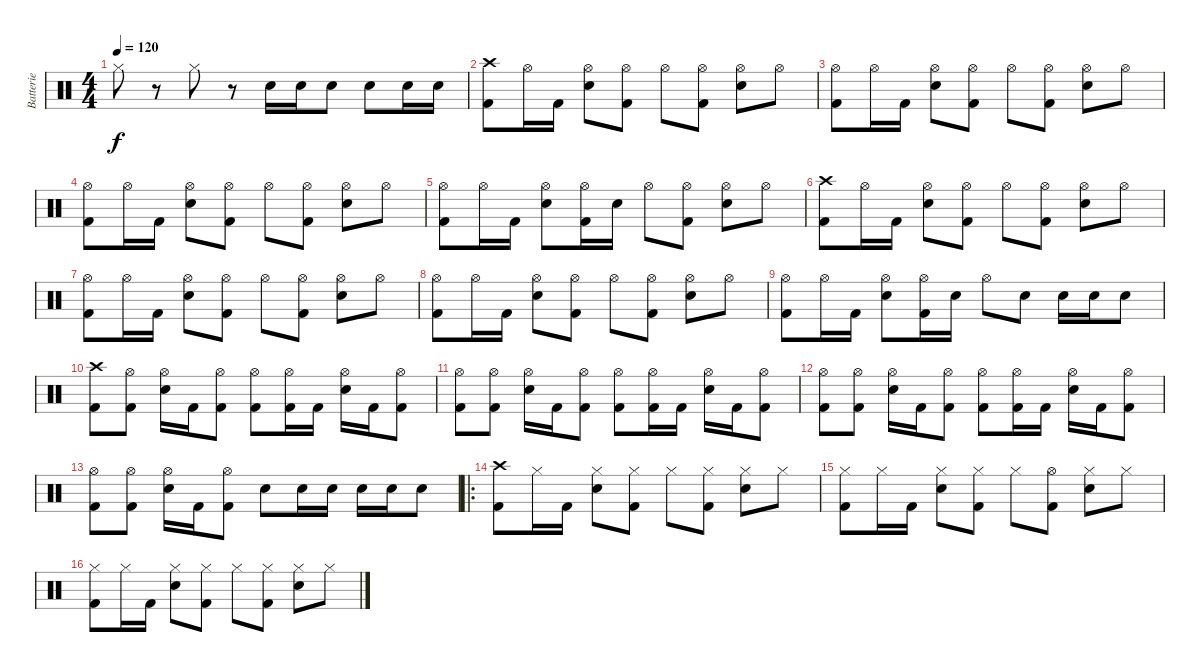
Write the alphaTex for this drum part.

\track ("Batterie" "Batterie") {instrument percussion}
\staff {score}
\articulation defaults
\ts (4 4)
\tempo 120
\clef neutral
\ks c "Hi-Hat (closed)".8{dy f}
r.8 "Hi-Hat (closed)".8 r.8 "Snare (hit) 2".16 "Snare (hit) 2".16 "Snare (hit) 2".8 "Snare (hit) 2".8 "Snare (hit) 2".16 "Snare (hit) 2".16 |
("Crash high (hit)" "Kick (hit) 2").8 "Hi-Hat (open)".16 "Kick (hit) 2".16 ("Hi-Hat (open)" "Snare (hit) 2").8 ("Hi-Hat (open)" "Kick (hit) 2").8 "Hi-Hat (open)".8 ("Hi-Hat (open)" "Kick (hit) 2").8 ("Hi-Hat (open)" "Snare (hit) 2").8 "Hi-Hat (open)".8 |
("Hi-Hat (open)" "Kick (hit) 2").8 "Hi-Hat (open)".16 "Kick (hit) 2".16 ("Hi-Hat (open)" "Snare (hit) 2").8 ("Hi-Hat (open)" "Kick (hit) 2").8 "Hi-Hat (open)".8 ("Hi-Hat (open)" "Kick (hit) 2").8 ("Hi-Hat (open)" "Snare (hit) 2").8 "Hi-Hat (open)".8 |
("Hi-Hat (open)" "Kick (hit) 2").8 "Hi-Hat (open)".16 "Kick (hit) 2".16 ("Hi-Hat (open)" "Snare (hit) 2").8 ("Hi-Hat (open)" "Kick (hit) 2").8 "Hi-Hat (open)".8 ("Hi-Hat (open)" "Kick (hit) 2").8 ("Hi-Hat (open)" "Snare (hit) 2").8 "Hi-Hat (open)".8 |
("Hi-Hat (open)" "Kick (hit) 2").8 "Hi-Hat (open)".16 "Kick (hit) 2".16 ("Hi-Hat (open)" "Snare (hit) 2").8 ("Hi-Hat (open)" "Kick (hit) 2").16 "Snare (hit) 2".16 "Hi-Hat (open)".8 ("Hi-Hat (open)" "Kick (hit) 2").8 ("Hi-Hat (open)" "Snare (hit) 2").8 "Hi-Hat (open)".8 |
("Crash high (hit)" "Kick (hit) 2").8 "Hi-Hat (open)".16 "Kick (hit) 2".16 ("Hi-Hat (open)" "Snare (hit) 2").8 ("Hi-Hat (open)" "Kick (hit) 2").8 "Hi-Hat (open)".8 ("Hi-Hat (open)" "Kick (hit) 2").8 ("Hi-Hat (open)" "Snare (hit) 2").8 "Hi-Hat (open)".8 |
("Hi-Hat (open)" "Kick (hit) 2").8 "Hi-Hat (open)".16 "Kick (hit) 2".16 ("Hi-Hat (open)" "Snare (hit) 2").8 ("Hi-Hat (open)" "Kick (hit) 2").8 "Hi-Hat (open)".8 ("Hi-Hat (open)" "Kick (hit) 2").8 ("Hi-Hat (open)" "Snare (hit) 2").8 "Hi-Hat (open)".8 |
("Hi-Hat (open)" "Kick (hit) 2").8 "Hi-Hat (open)".16 "Kick (hit) 2".16 ("Hi-Hat (open)" "Snare (hit) 2").8 ("Hi-Hat (open)" "Kick (hit) 2").8 "Hi-Hat (open)".8 ("Hi-Hat (open)" "Kick (hit) 2").8 ("Hi-Hat (open)" "Snare (hit) 2").8 "Hi-Hat (open)".8 |
("Hi-Hat (open)" "Kick (hit) 2").8 "Hi-Hat (open)".16 "Kick (hit) 2".16 ("Hi-Hat (open)" "Snare (hit) 2").8 ("Hi-Hat (open)" "Kick (hit) 2").16 "Snare (hit) 2".16 "Hi-Hat (open)".8 "Snare (hit) 2".8 "Snare (hit) 2".16 "Snare (hit) 2".16 "Snare (hit) 2".8 |
("Crash high (hit)" "Kick (hit) 2").8 ("Hi-Hat (open)" "Kick (hit) 2").8 ("Hi-Hat (open)" "Snare (hit) 2").16 "Kick (hit) 2".16 ("Hi-Hat (open)" "Kick (hit) 2").8 ("Hi-Hat (open)" "Kick (hit) 2").8 ("Hi-Hat (open)" "Kick (hit) 2").16 "Kick (hit) 2".16 ("Hi-Hat (open)" "Snare (hit) 2").16 "Kick (hit) 2".16 ("Hi-Hat (open)" "Kick (hit) 2").8 |
("Hi-Hat (open)" "Kick (hit) 2").8 ("Hi-Hat (open)" "Kick (hit) 2").8 ("Hi-Hat (open)" "Snare (hit) 2").16 "Kick (hit) 2".16 ("Hi-Hat (open)" "Kick (hit) 2").8 ("Hi-Hat (open)" "Kick (hit) 2").8 ("Hi-Hat (open)" "Kick (hit) 2").16 "Kick (hit) 2".16 ("Hi-Hat (open)" "Snare (hit) 2").16 "Kick (hit) 2".16 ("Hi-Hat (open)" "Kick (hit) 2").8 |
("Hi-Hat (open)" "Kick (hit) 2").8 ("Hi-Hat (open)" "Kick (hit) 2").8 ("Hi-Hat (open)" "Snare (hit) 2").16 "Kick (hit) 2".16 ("Hi-Hat (open)" "Kick (hit) 2").8 ("Hi-Hat (open)" "Kick (hit) 2").8 ("Hi-Hat (open)" "Kick (hit) 2").16 "Kick (hit) 2".16 ("Hi-Hat (open)" "Snare (hit) 2").16 "Kick (hit) 2".16 ("Hi-Hat (open)" "Kick (hit) 2").8 |
("Hi-Hat (open)" "Kick (hit) 2").8 ("Hi-Hat (open)" "Kick (hit) 2").8 ("Hi-Hat (open)" "Snare (hit) 2").16 "Kick (hit) 2".16 ("Hi-Hat (open)" "Kick (hit) 2").8 "Snare (hit) 2".8 "Snare (hit) 2".16 "Snare (hit) 2".16 "Snare (hit) 2".16 "Snare (hit) 2".16 "Snare (hit) 2".8 |
\ro
("Crash high (hit)" "Kick (hit) 2").8 "Hi-Hat (closed)".16 "Kick (hit) 2".16 ("Hi-Hat (closed)" "Snare (hit) 2").8 ("Hi-Hat (closed)" "Kick (hit) 2").8 "Hi-Hat (closed)".8 ("Hi-Hat (closed)" "Kick (hit) 2").8 ("Hi-Hat (closed)" "Snare (hit) 2").8 "Hi-Hat (closed)".8 |
("Hi-Hat (closed)" "Kick (hit) 2").8 "Hi-Hat (closed)".16 "Kick (hit) 2".16 ("Hi-Hat (closed)" "Snare (hit) 2").8 ("Hi-Hat (closed)" "Kick (hit) 2").8 "Hi-Hat (closed)".8 ("Hi-Hat (open)" "Kick (hit) 2").8 ("Hi-Hat (closed)" "Snare (hit) 2").8 "Hi-Hat (closed)".8 |
("Hi-Hat (closed)" "Kick (hit) 2").8 "Hi-Hat (closed)".16 "Kick (hit) 2".16 ("Hi-Hat (closed)" "Snare (hit) 2").8 ("Hi-Hat (closed)" "Kick (hit) 2").8 "Hi-Hat (closed)".8 ("Hi-Hat (closed)" "Kick (hit) 2").8 ("Hi-Hat (closed)" "Snare (hit) 2").8 "Hi-Hat (closed)".8
